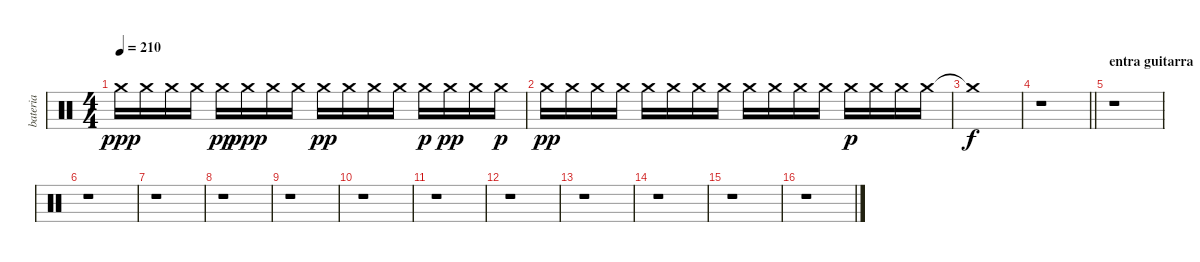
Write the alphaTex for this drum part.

\track ("bateria" "bateria") {instrument percussion}
\staff {score}
\articulation defaults
\ts (4 4)
\tempo 210
\clef neutral
\ks c "Crash medium (hit)".16{dy ppp} "Crash medium (hit)".16 "Crash medium (hit)".16 "Crash medium (hit)".16 "Crash medium (hit)".16{dy pp} "Crash medium (hit)".16{dy ppp} "Crash medium (hit)".16 "Crash medium (hit)".16 "Crash medium (hit)".16{dy pp} "Crash medium (hit)".16 "Crash medium (hit)".16 "Crash medium (hit)".16 "Crash medium (hit)".16{dy p} "Crash medium (hit)".16{dy pp} "Crash medium (hit)".16 "Crash medium (hit)".16{dy p}
|
"Crash medium (hit)".16{dy pp} "Crash medium (hit)".16 "Crash medium (hit)".16 "Crash medium (hit)".16 "Crash medium (hit)".16 "Crash medium (hit)".16 "Crash medium (hit)".16 "Crash medium (hit)".16 "Crash medium (hit)".16 "Crash medium (hit)".16 "Crash medium (hit)".16 "Crash medium (hit)".16 "Crash medium (hit)".16{dy p} "Crash medium (hit)".16 "Crash medium (hit)".16 "Crash medium (hit)".16 |
"Crash medium (hit)"{t}.1{dy f} |
\barLineRight lightlight
r.1 |
\section ("" "entra guitarra")
r.1 |
r.1 |
r.1 |
r.1 |
r.1 |
r.1 |
r.1 |
r.1 |
r.1 |
r.1 |
r.1 |
r.1
